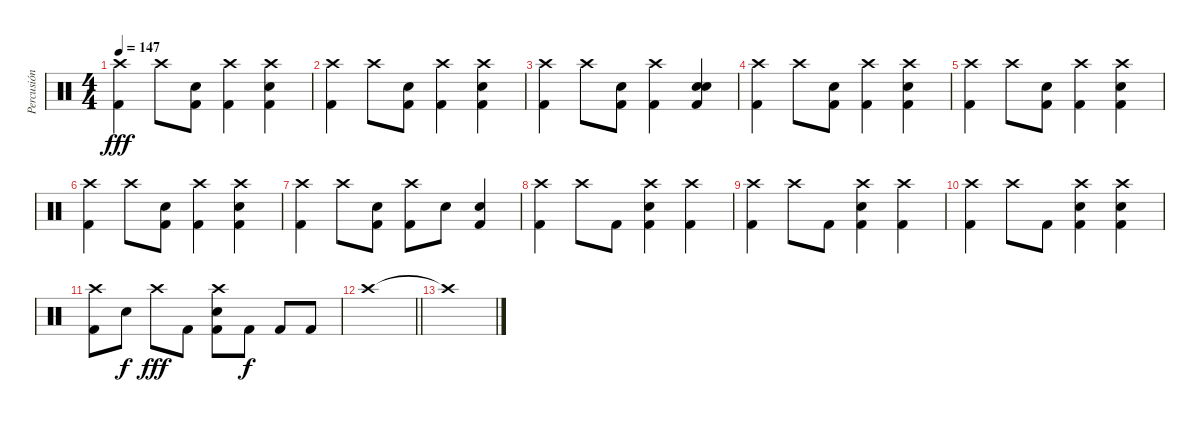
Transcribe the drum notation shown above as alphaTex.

\track ("Percusión" "Percusión") {instrument percussion}
\staff {score}
\articulation defaults
\ts (4 4)
\tempo 147
\clef neutral
\ks c
("Crash high (hit)" "Kick (hit) 2").4{dy fff} "Crash high (hit)".8 ("Electric Snare (hit)" "Kick (hit) 2").8 ("Crash high (hit)" "Kick (hit) 2").4 ("Crash high (hit)" "Electric Snare (hit)" "Kick (hit) 2").4 |
("Crash high (hit)" "Kick (hit) 2").4 "Crash high (hit)".8 ("Electric Snare (hit)" "Kick (hit) 2").8 ("Crash high (hit)" "Kick (hit) 2").4 ("Crash high (hit)" "Electric Snare (hit)" "Kick (hit) 2").4 |
("Crash high (hit)" "Kick (hit) 2").4 "Crash high (hit)".8 ("Electric Snare (hit)" "Kick (hit) 2").8 ("Crash high (hit)" "Kick (hit) 2").4 ("Electric Snare (hit)" "Electric Snare (hit)" "Kick (hit) 2").4{bd 240} |
("Crash high (hit)" "Kick (hit) 2").4 "Crash high (hit)".8 ("Electric Snare (hit)" "Kick (hit) 2").8 ("Crash high (hit)" "Kick (hit) 2").4 ("Crash high (hit)" "Electric Snare (hit)" "Kick (hit) 2").4 |
("Crash high (hit)" "Kick (hit) 2").4 "Crash high (hit)".8 ("Electric Snare (hit)" "Kick (hit) 2").8 ("Crash high (hit)" "Kick (hit) 2").4 ("Crash high (hit)" "Electric Snare (hit)" "Kick (hit) 2").4 |
("Crash high (hit)" "Kick (hit) 2").4 "Crash high (hit)".8 ("Electric Snare (hit)" "Kick (hit) 2").8 ("Crash high (hit)" "Kick (hit) 2").4 ("Crash high (hit)" "Electric Snare (hit)" "Kick (hit) 2").4 |
("Crash high (hit)" "Kick (hit) 2").4 "Crash high (hit)".8 ("Electric Snare (hit)" "Kick (hit) 2").8 ("Crash high (hit)" "Kick (hit) 2").8 "Electric Snare (hit)".8 ("Electric Snare (hit)" "Kick (hit) 2").4 |
("Crash high (hit)" "Kick (hit) 2").4 "Crash high (hit)".8 "Kick (hit) 2".8 ("Crash high (hit)" "Electric Snare (hit)" "Kick (hit) 2").4 ("Crash high (hit)" "Kick (hit) 2").4 |
("Crash high (hit)" "Kick (hit) 2").4 "Crash high (hit)".8 "Kick (hit) 2".8 ("Crash high (hit)" "Electric Snare (hit)" "Kick (hit) 2").4 ("Crash high (hit)" "Kick (hit) 2").4 |
("Crash high (hit)" "Kick (hit) 2").4 "Crash high (hit)".8 "Kick (hit) 2".8 ("Crash high (hit)" "Electric Snare (hit)" "Kick (hit) 2").4 ("Crash high (hit)" "Electric Snare (hit)" "Kick (hit) 2").4 |
("Crash high (hit)" "Kick (hit) 2").8 "Electric Snare (hit)".8{dy f} "Crash high (hit)".8{dy fff} "Kick (hit) 2".8 ("Crash high (hit)" "Electric Snare (hit)" "Kick (hit) 2").8 "Kick (hit) 2".8{dy f} "Kick (hit) 2".8 "Kick (hit) 2".8 |
\barLineRight lightlight "Crash high (hit)".1
|
"Crash high (hit)"{t}.1
